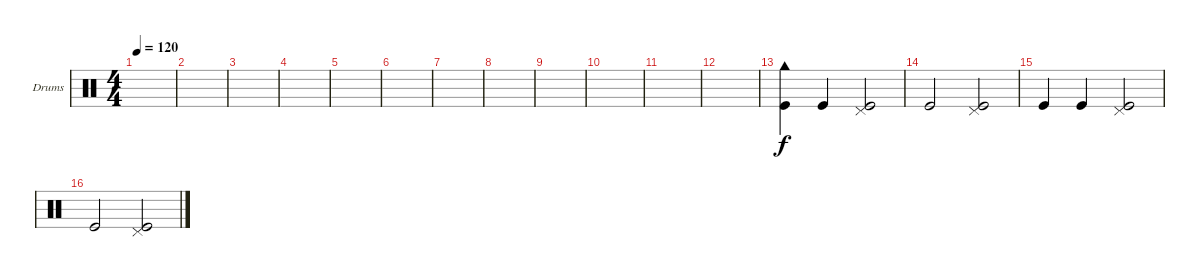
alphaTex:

\bracketExtendMode groupsimilarinstruments
\firstSystemTrackNameOrientation horizontal
\otherSystemsTrackNameOrientation horizontal
\track ("Drumkit" "Drums") {instrument percussion}
\staff {score}
\articulation defaults
\ts (4 4)
\tempo 120
\clef neutral
\ks c
|
|
|
|
|
|
|
|
|
|
|
|
("Kick (hit)" "Cowbell high (hit)").4 "Kick (hit)".4 ("Kick (hit)" "Pedal Hi-Hat (hit)").2 |
"Kick (hit)".2 ("Pedal Hi-Hat (hit)" "Kick (hit)").2 |
"Kick (hit)".4 "Kick (hit)".4 ("Kick (hit)" "Pedal Hi-Hat (hit)").2 |
"Kick (hit)".2 ("Pedal Hi-Hat (hit)" "Kick (hit)").2
